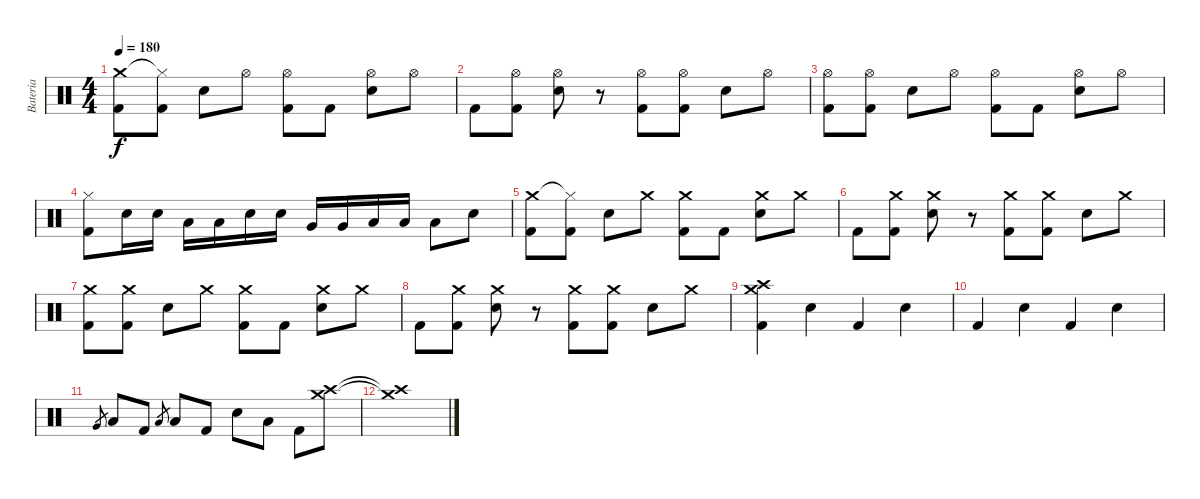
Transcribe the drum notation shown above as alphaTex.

\track ("Bateria" "Bateria") {instrument percussion}
\staff {score}
\articulation defaults
\ts (4 4)
\tempo 180
\clef neutral
\ks c
("Crash medium (hit)" "Kick (hit) 2").8{dy f} ("Hi-Hat (closed)"{t} "Kick (hit) 2").8 "Electric Snare (hit)".8 "Hi-Hat (open)".8 ("Hi-Hat (open)" "Kick (hit) 2").8 "Kick (hit) 2".8 ("Hi-Hat (open)" "Electric Snare (hit)").8 "Hi-Hat (open)".8 |
"Kick (hit) 2".8 ("Hi-Hat (open)" "Kick (hit) 2").8 ("Hi-Hat (open)" "Electric Snare (hit)").8 r.8 ("Hi-Hat (open)" "Kick (hit) 2").8 ("Hi-Hat (open)" "Kick (hit) 2").8 "Electric Snare (hit)".8 "Hi-Hat (open)".8 |
("Hi-Hat (open)" "Kick (hit) 2").8 ("Hi-Hat (open)" "Kick (hit) 2").8 "Electric Snare (hit)".8 "Hi-Hat (open)".8 ("Hi-Hat (open)" "Kick (hit) 2").8 "Kick (hit) 2".8 ("Hi-Hat (open)" "Electric Snare (hit)").8 "Hi-Hat (open)".8 |
("Hi-Hat (closed)" "Kick (hit) 2").8 "Electric Snare (hit)".16 "Electric Snare (hit)".16 "Low Tom (hit)".16 "Low Tom (hit)".16 "Electric Snare (hit)".16 "Electric Snare (hit)".16 "Very Low Tom (hit)".16 "Very Low Tom (hit)".16 "Low Floor Tom (hit)".16 "Low Floor Tom (hit)".16 "Low Tom (hit)".8 "Electric Snare (hit)".8 |
("Crash medium (hit)" "Kick (hit) 2").8 ("Hi-Hat (closed)"{t} "Kick (hit) 2").8 "Electric Snare (hit)".8 "Crash medium (hit)".8 ("Crash medium (hit)" "Kick (hit) 2").8 "Kick (hit) 2".8 ("Crash medium (hit)" "Electric Snare (hit)").8 "Crash medium (hit)".8 |
"Kick (hit) 2".8 ("Crash medium (hit)" "Kick (hit) 2").8 ("Crash medium (hit)" "Electric Snare (hit)").8 r.8 ("Crash medium (hit)" "Kick (hit) 2").8 ("Crash medium (hit)" "Kick (hit) 2").8 "Electric Snare (hit)".8 "Crash medium (hit)".8 |
("Crash medium (hit)" "Kick (hit) 2").8 ("Crash medium (hit)" "Kick (hit) 2").8 "Electric Snare (hit)".8 "Crash medium (hit)".8 ("Crash medium (hit)" "Kick (hit) 2").8 "Kick (hit) 2".8 ("Crash medium (hit)" "Electric Snare (hit)").8 "Crash medium (hit)".8 |
"Kick (hit) 2".8 ("Crash medium (hit)" "Kick (hit) 2").8 ("Crash medium (hit)" "Electric Snare (hit)").8 r.8 ("Crash medium (hit)" "Kick (hit) 2").8 ("Crash medium (hit)" "Kick (hit) 2").8 "Electric Snare (hit)".8 "Crash medium (hit)".8 |
("Crash high (hit)" "Crash medium (hit)" "Kick (hit) 2").4 "Electric Snare (hit)".4 "Kick (hit) 2".4 "Electric Snare (hit)".4 |
"Kick (hit) 2".4 "Electric Snare (hit)".4 "Kick (hit) 2".4 "Electric Snare (hit)".4 |
"Very Low Tom (hit)".8{gr} "Low Tom (hit)".8 "Kick (hit) 2".8 "Low Tom (hit)".8{gr} "Low Tom (hit)".8 "Kick (hit) 2".8 "Electric Snare (hit)".8 "Low Tom (hit)".8 "Kick (hit) 2".8 ("Crash medium (hit)" "Crash high (hit)").8 |
("Crash medium (hit)"{t} "Crash high (hit)"{t}).1
